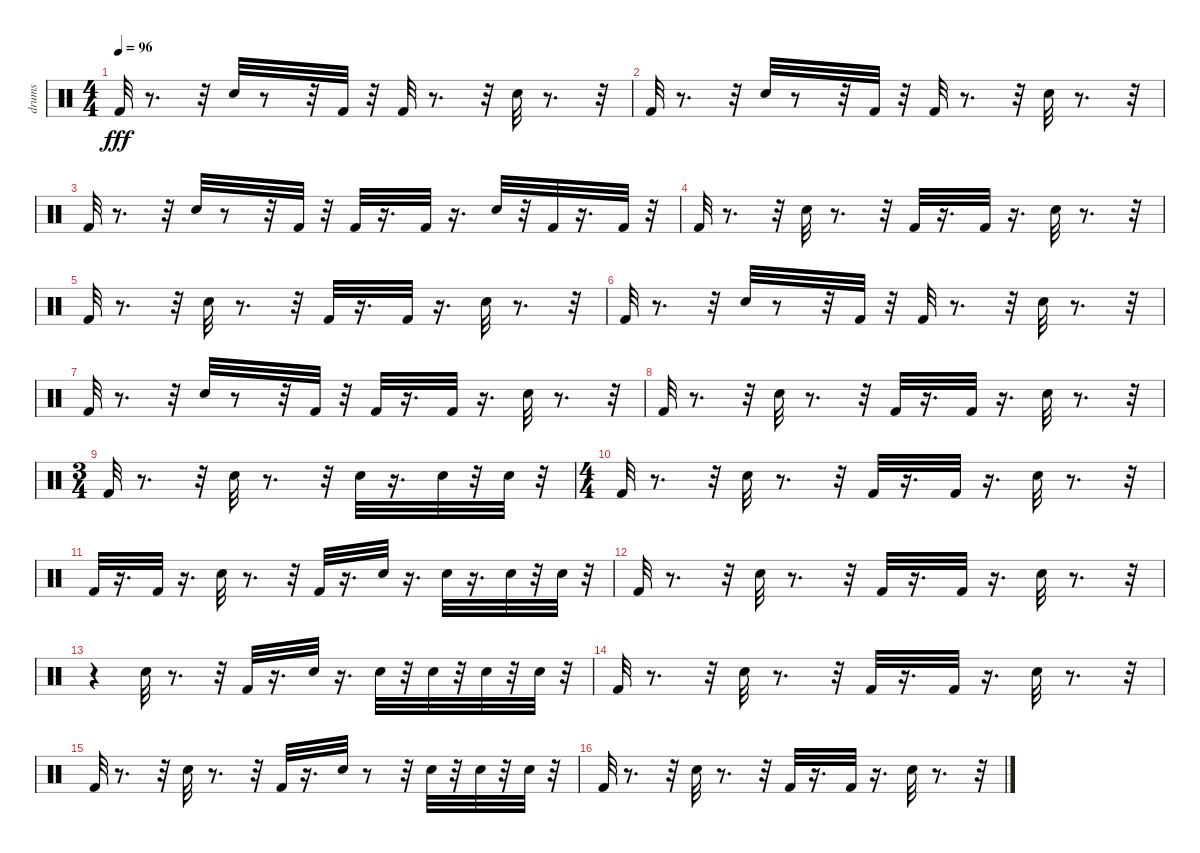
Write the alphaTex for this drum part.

\track ("drums" "drums") {instrument percussion}
\staff {score}
\articulation defaults
\ts (4 4)
\tempo 96
\clef neutral
\ks c "Kick (hit) 2".32{dy fff}
r.8{d} r.32 "Electric Snare (hit)".32 r.8 r.32 "Kick (hit) 2".32 r.32 "Kick (hit) 2".32 r.8{d} r.32 "Electric Snare (hit)".32 r.8{d} r.32 |
"Kick (hit) 2".32 r.8{d} r.32 "Electric Snare (hit)".32 r.8 r.32 "Kick (hit) 2".32 r.32 "Kick (hit) 2".32 r.8{d} r.32 "Electric Snare (hit)".32 r.8{d} r.32 |
"Kick (hit) 2".32 r.8{d} r.32 "Electric Snare (hit)".32 r.8 r.32 "Kick (hit) 2".32 r.32 "Kick (hit) 2".32 r.16{d} "Kick (hit) 2".32 r.16{d} "Electric Snare (hit)".32 r.32 "Kick (hit) 2".32 r.16{d} "Kick (hit) 2".32 r.32 |
"Kick (hit) 2".32 r.8{d} r.32 "Electric Snare (hit)".32 r.8{d} r.32 "Kick (hit) 2".32 r.16{d} "Kick (hit) 2".32 r.16{d} "Electric Snare (hit)".32 r.8{d} r.32 |
"Kick (hit) 2".32 r.8{d} r.32 "Electric Snare (hit)".32 r.8{d} r.32 "Kick (hit) 2".32 r.16{d} "Kick (hit) 2".32 r.16{d} "Electric Snare (hit)".32 r.8{d} r.32 |
"Kick (hit) 2".32 r.8{d} r.32 "Electric Snare (hit)".32 r.8 r.32 "Kick (hit) 2".32 r.32 "Kick (hit) 2".32 r.8{d} r.32 "Electric Snare (hit)".32 r.8{d} r.32 |
"Kick (hit) 2".32 r.8{d} r.32 "Electric Snare (hit)".32 r.8 r.32 "Kick (hit) 2".32 r.32 "Kick (hit) 2".32 r.16{d} "Kick (hit) 2".32 r.16{d} "Electric Snare (hit)".32 r.8{d} r.32 |
"Kick (hit) 2".32 r.8{d} r.32 "Electric Snare (hit)".32 r.8{d} r.32 "Kick (hit) 2".32 r.16{d} "Kick (hit) 2".32 r.16{d} "Electric Snare (hit)".32 r.8{d} r.32 |
\ts (3 4)
"Kick (hit) 2".32 r.8{d} r.32 "Electric Snare (hit)".32 r.8{d} r.32 "Electric Snare (hit)".32 r.16{d} "Electric Snare (hit)".32 r.32 "Electric Snare (hit)".32 r.32 |
\ts (4 4)
"Kick (hit) 2".32 r.8{d} r.32 "Electric Snare (hit)".32 r.8{d} r.32 "Kick (hit) 2".32 r.16{d} "Kick (hit) 2".32 r.16{d} "Electric Snare (hit)".32 r.8{d} r.32 |
"Kick (hit) 2".32 r.16{d} "Kick (hit) 2".32 r.16{d} "Electric Snare (hit)".32 r.8{d} r.32 "Kick (hit) 2".32 r.16{d} "Electric Snare (hit)".32 r.16{d} "Electric Snare (hit)".32 r.16{d} "Electric Snare (hit)".32 r.32 "Electric Snare (hit)".32 r.32 |
"Kick (hit) 2".32 r.8{d} r.32 "Electric Snare (hit)".32 r.8{d} r.32 "Kick (hit) 2".32 r.16{d} "Kick (hit) 2".32 r.16{d} "Electric Snare (hit)".32 r.8{d} r.32 |
r.4 "Electric Snare (hit)".32 r.8{d} r.32 "Kick (hit) 2".32 r.16{d} "Electric Snare (hit)".32 r.16{d} "Electric Snare (hit)".32 r.32 "Electric Snare (hit)".32 r.32 "Electric Snare (hit)".32 r.32 "Electric Snare (hit)".32 r.32 |
"Kick (hit) 2".32 r.8{d} r.32 "Electric Snare (hit)".32 r.8{d} r.32 "Kick (hit) 2".32 r.16{d} "Kick (hit) 2".32 r.16{d} "Electric Snare (hit)".32 r.8{d} r.32 |
"Kick (hit) 2".32 r.8{d} r.32 "Electric Snare (hit)".32 r.8{d} r.32 "Kick (hit) 2".32 r.16{d} "Electric Snare (hit)".32 r.8 r.32 "Electric Snare (hit)".32 r.32 "Electric Snare (hit)".32 r.32 "Electric Snare (hit)".32 r.32 |
"Kick (hit) 2".32 r.8{d} r.32 "Electric Snare (hit)".32 r.8{d} r.32 "Kick (hit) 2".32 r.16{d} "Kick (hit) 2".32 r.16{d} "Electric Snare (hit)".32 r.8{d} r.32
